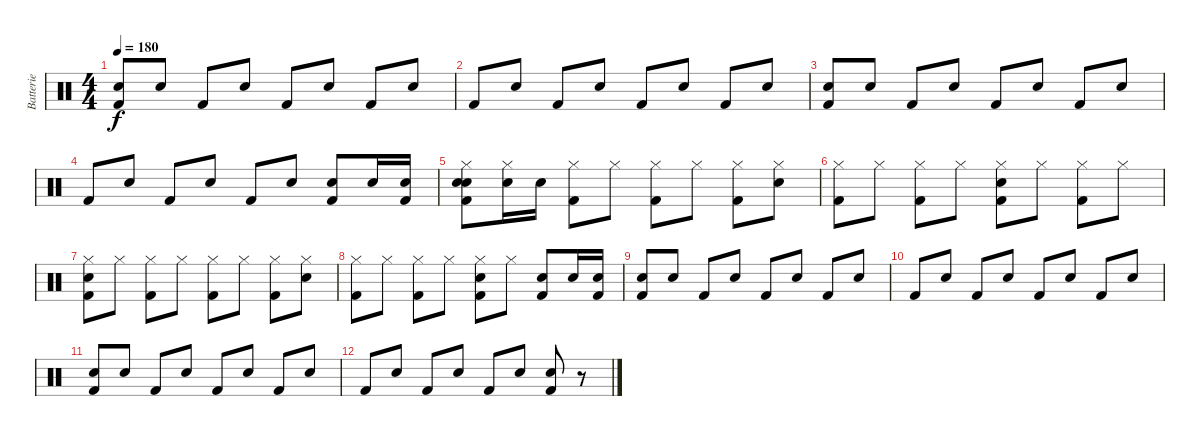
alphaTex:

\track ("Batterie" "Batterie") {instrument percussion}
\staff {score}
\articulation defaults
\ts (4 4)
\tempo 180
\clef neutral
\ks c
("Metronome (bell)" "Kick (hit) 2").8{dy f} "Electric Snare (hit)".8 "Kick (hit) 2".8 "Electric Snare (hit)".8 "Kick (hit) 2".8 "Electric Snare (hit)".8 "Kick (hit) 2".8 "Electric Snare (hit)".8 |
"Kick (hit) 2".8 "Electric Snare (hit)".8 "Kick (hit) 2".8 "Electric Snare (hit)".8 "Kick (hit) 2".8 "Electric Snare (hit)".8 "Kick (hit) 2".8 "Electric Snare (hit)".8 |
("Metronome (bell)" "Kick (hit) 2").8 "Electric Snare (hit)".8 "Kick (hit) 2".8 "Electric Snare (hit)".8 "Kick (hit) 2".8 "Electric Snare (hit)".8 "Kick (hit) 2".8 "Electric Snare (hit)".8 |
"Kick (hit) 2".8 "Electric Snare (hit)".8 "Kick (hit) 2".8 "Electric Snare (hit)".8 "Kick (hit) 2".8 "Electric Snare (hit)".8 ("Electric Snare (hit)" "Kick (hit) 2").8 "Electric Snare (hit)".16 ("Electric Snare (hit)" "Kick (hit) 2").16 |
("Metronome (bell)" "Hi-Hat (closed)" "Electric Snare (hit)" "Kick (hit) 2").8 ("Hi-Hat (closed)" "Electric Snare (hit)").16 "Electric Snare (hit)".16 ("Hi-Hat (closed)" "Kick (hit) 2").8 "Hi-Hat (closed)".8 ("Hi-Hat (closed)" "Kick (hit) 2").8 "Hi-Hat (closed)".8 ("Hi-Hat (closed)" "Kick (hit) 2").8 ("Hi-Hat (closed)" "Electric Snare (hit)").8 |
("Hi-Hat (closed)" "Kick (hit) 2").8 "Hi-Hat (closed)".8 ("Hi-Hat (closed)" "Kick (hit) 2").8 "Hi-Hat (closed)".8 ("Hi-Hat (closed)" "Electric Snare (hit)" "Kick (hit) 2").8 "Hi-Hat (closed)".8 ("Hi-Hat (closed)" "Kick (hit) 2").8 "Hi-Hat (closed)".8 |
("Metronome (bell)" "Hi-Hat (closed)" "Kick (hit) 2").8 "Hi-Hat (closed)".8 ("Hi-Hat (closed)" "Kick (hit) 2").8 "Hi-Hat (closed)".8 ("Hi-Hat (closed)" "Kick (hit) 2").8 "Hi-Hat (closed)".8 ("Hi-Hat (closed)" "Kick (hit) 2").8 ("Hi-Hat (closed)" "Electric Snare (hit)").8 |
("Hi-Hat (closed)" "Kick (hit) 2").8 "Hi-Hat (closed)".8 ("Hi-Hat (closed)" "Kick (hit) 2").8 "Hi-Hat (closed)".8 ("Hi-Hat (closed)" "Electric Snare (hit)" "Kick (hit) 2").8 "Hi-Hat (closed)".8 ("Electric Snare (hit)" "Kick (hit) 2").8 "Electric Snare (hit)".16 ("Electric Snare (hit)" "Kick (hit) 2").16 |
("Metronome (bell)" "Kick (hit) 2").8 "Electric Snare (hit)".8 "Kick (hit) 2".8 "Electric Snare (hit)".8 "Kick (hit) 2".8 "Electric Snare (hit)".8 "Kick (hit) 2".8 "Electric Snare (hit)".8 |
"Kick (hit) 2".8 "Electric Snare (hit)".8 "Kick (hit) 2".8 "Electric Snare (hit)".8 "Kick (hit) 2".8 "Electric Snare (hit)".8 "Kick (hit) 2".8 "Electric Snare (hit)".8 |
("Metronome (bell)" "Kick (hit) 2").8 "Electric Snare (hit)".8 "Kick (hit) 2".8 "Electric Snare (hit)".8 "Kick (hit) 2".8 "Electric Snare (hit)".8 "Kick (hit) 2".8 "Electric Snare (hit)".8 |
"Kick (hit) 2".8 "Electric Snare (hit)".8 "Kick (hit) 2".8 "Electric Snare (hit)".8 "Kick (hit) 2".8 "Electric Snare (hit)".8 ("Electric Snare (hit)" "Kick (hit) 2").8 r.8
